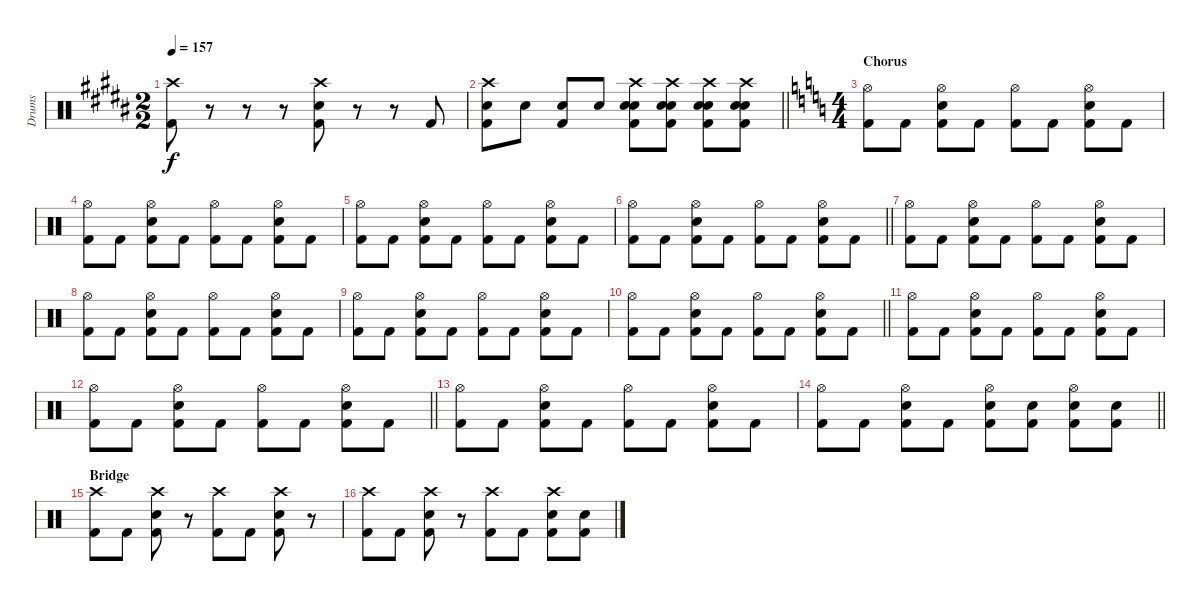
\track ("Drums" "Drums") {instrument percussion}
\staff {score}
\articulation defaults
\ts (2 2)
\tempo 157
\clef neutral
\ks b
("Crash high (hit)" "Kick (hit) 2").8{dy f} r.8 r.8 r.8 ("Crash high (hit)" "Electric Snare (hit)" "Kick (hit) 2").8 r.8 r.8 "Kick (hit) 2".8 |
\barLineRight lightlight
\ks g#minor
("Crash high (hit)" "Electric Snare (hit)" "Kick (hit) 2").8 "Electric Snare (hit)".8 ("Electric Snare (hit)" "Kick (hit) 2").8 "Electric Snare (hit)".8 ("Crash high (hit)" "Electric Snare (hit)" "Electric Snare (hit)" "Kick (hit) 2").8 ("Crash high (hit)" "Electric Snare (hit)" "Electric Snare (hit)" "Kick (hit) 2").8 ("Crash high (hit)" "Electric Snare (hit)" "Kick (hit) 2" "Electric Snare (hit)").8 ("Crash high (hit)" "Electric Snare (hit)" "Kick (hit) 2" "Electric Snare (hit)").8 |
\ts (4 4)
\section ("" "Chorus")
\ks c
("Hi-Hat (open)" "Kick (hit) 2").8 "Kick (hit) 2".8 ("Hi-Hat (open)" "Electric Snare (hit)" "Kick (hit) 2").8 "Kick (hit) 2".8 ("Hi-Hat (open)" "Kick (hit) 2").8 "Kick (hit) 2".8 ("Hi-Hat (open)" "Kick (hit) 2" "Electric Snare (hit)").8 "Kick (hit) 2".8 |
("Hi-Hat (open)" "Kick (hit) 2").8 "Kick (hit) 2".8 ("Hi-Hat (open)" "Electric Snare (hit)" "Kick (hit) 2").8 "Kick (hit) 2".8 ("Hi-Hat (open)" "Kick (hit) 2").8 "Kick (hit) 2".8 ("Hi-Hat (open)" "Kick (hit) 2" "Electric Snare (hit)").8 "Kick (hit) 2".8 |
("Hi-Hat (open)" "Kick (hit) 2").8 "Kick (hit) 2".8 ("Hi-Hat (open)" "Electric Snare (hit)" "Kick (hit) 2").8 "Kick (hit) 2".8 ("Hi-Hat (open)" "Kick (hit) 2").8 "Kick (hit) 2".8 ("Hi-Hat (open)" "Kick (hit) 2" "Electric Snare (hit)").8 "Kick (hit) 2".8 |
\barLineRight lightlight
("Hi-Hat (open)" "Kick (hit) 2").8 "Kick (hit) 2".8 ("Hi-Hat (open)" "Electric Snare (hit)" "Kick (hit) 2").8 "Kick (hit) 2".8 ("Hi-Hat (open)" "Kick (hit) 2").8 "Kick (hit) 2".8 ("Hi-Hat (open)" "Kick (hit) 2" "Electric Snare (hit)").8 "Kick (hit) 2".8 |
("Hi-Hat (open)" "Kick (hit) 2").8 "Kick (hit) 2".8 ("Hi-Hat (open)" "Electric Snare (hit)" "Kick (hit) 2").8 "Kick (hit) 2".8 ("Hi-Hat (open)" "Kick (hit) 2").8 "Kick (hit) 2".8 ("Hi-Hat (open)" "Kick (hit) 2" "Electric Snare (hit)").8 "Kick (hit) 2".8 |
("Hi-Hat (open)" "Kick (hit) 2").8 "Kick (hit) 2".8 ("Hi-Hat (open)" "Electric Snare (hit)" "Kick (hit) 2").8 "Kick (hit) 2".8 ("Hi-Hat (open)" "Kick (hit) 2").8 "Kick (hit) 2".8 ("Hi-Hat (open)" "Kick (hit) 2" "Electric Snare (hit)").8 "Kick (hit) 2".8 |
("Hi-Hat (open)" "Kick (hit) 2").8 "Kick (hit) 2".8 ("Hi-Hat (open)" "Electric Snare (hit)" "Kick (hit) 2").8 "Kick (hit) 2".8 ("Hi-Hat (open)" "Kick (hit) 2").8 "Kick (hit) 2".8 ("Hi-Hat (open)" "Kick (hit) 2" "Electric Snare (hit)").8 "Kick (hit) 2".8 |
\barLineRight lightlight
("Hi-Hat (open)" "Kick (hit) 2").8 "Kick (hit) 2".8 ("Hi-Hat (open)" "Electric Snare (hit)" "Kick (hit) 2").8 "Kick (hit) 2".8 ("Hi-Hat (open)" "Kick (hit) 2").8 "Kick (hit) 2".8 ("Hi-Hat (open)" "Kick (hit) 2" "Electric Snare (hit)").8 "Kick (hit) 2".8 |
("Hi-Hat (open)" "Kick (hit) 2").8 "Kick (hit) 2".8 ("Hi-Hat (open)" "Electric Snare (hit)" "Kick (hit) 2").8 "Kick (hit) 2".8 ("Hi-Hat (open)" "Kick (hit) 2").8 "Kick (hit) 2".8 ("Hi-Hat (open)" "Kick (hit) 2" "Electric Snare (hit)").8 "Kick (hit) 2".8 |
\barLineRight lightlight
("Hi-Hat (open)" "Kick (hit) 2").8 "Kick (hit) 2".8 ("Hi-Hat (open)" "Electric Snare (hit)" "Kick (hit) 2").8 "Kick (hit) 2".8 ("Hi-Hat (open)" "Kick (hit) 2").8 "Kick (hit) 2".8 ("Hi-Hat (open)" "Kick (hit) 2" "Electric Snare (hit)").8 "Kick (hit) 2".8 |
("Hi-Hat (open)" "Kick (hit) 2").8 "Kick (hit) 2".8 ("Hi-Hat (open)" "Electric Snare (hit)" "Kick (hit) 2").8 "Kick (hit) 2".8 ("Hi-Hat (open)" "Kick (hit) 2").8 "Kick (hit) 2".8 ("Hi-Hat (open)" "Kick (hit) 2" "Electric Snare (hit)").8 "Kick (hit) 2".8 |
\barLineRight lightlight
("Hi-Hat (open)" "Kick (hit) 2").8 "Kick (hit) 2".8 ("Hi-Hat (open)" "Electric Snare (hit)" "Kick (hit) 2").8 "Kick (hit) 2".8 ("Hi-Hat (open)" "Electric Snare (hit)" "Kick (hit) 2").8 ("Electric Snare (hit)" "Kick (hit) 2").8 ("Hi-Hat (open)" "Kick (hit) 2" "Electric Snare (hit)").8 ("Electric Snare (hit)" "Kick (hit) 2").8 |
\section ("" "Bridge")
("Crash high (hit)" "Kick (hit) 2").8 "Kick (hit) 2".8 ("Crash high (hit)" "Electric Snare (hit)" "Kick (hit) 2").8 r.8 ("Crash high (hit)" "Kick (hit) 2").8 "Kick (hit) 2".8 ("Crash high (hit)" "Electric Snare (hit)" "Kick (hit) 2").8 r.8 |
("Crash high (hit)" "Kick (hit) 2").8 "Kick (hit) 2".8 ("Crash high (hit)" "Electric Snare (hit)" "Kick (hit) 2").8 r.8 ("Crash high (hit)" "Kick (hit) 2").8 "Kick (hit) 2".8 ("Crash high (hit)" "Electric Snare (hit)" "Kick (hit) 2").8 ("Electric Snare (hit)" "Kick (hit) 2").8
